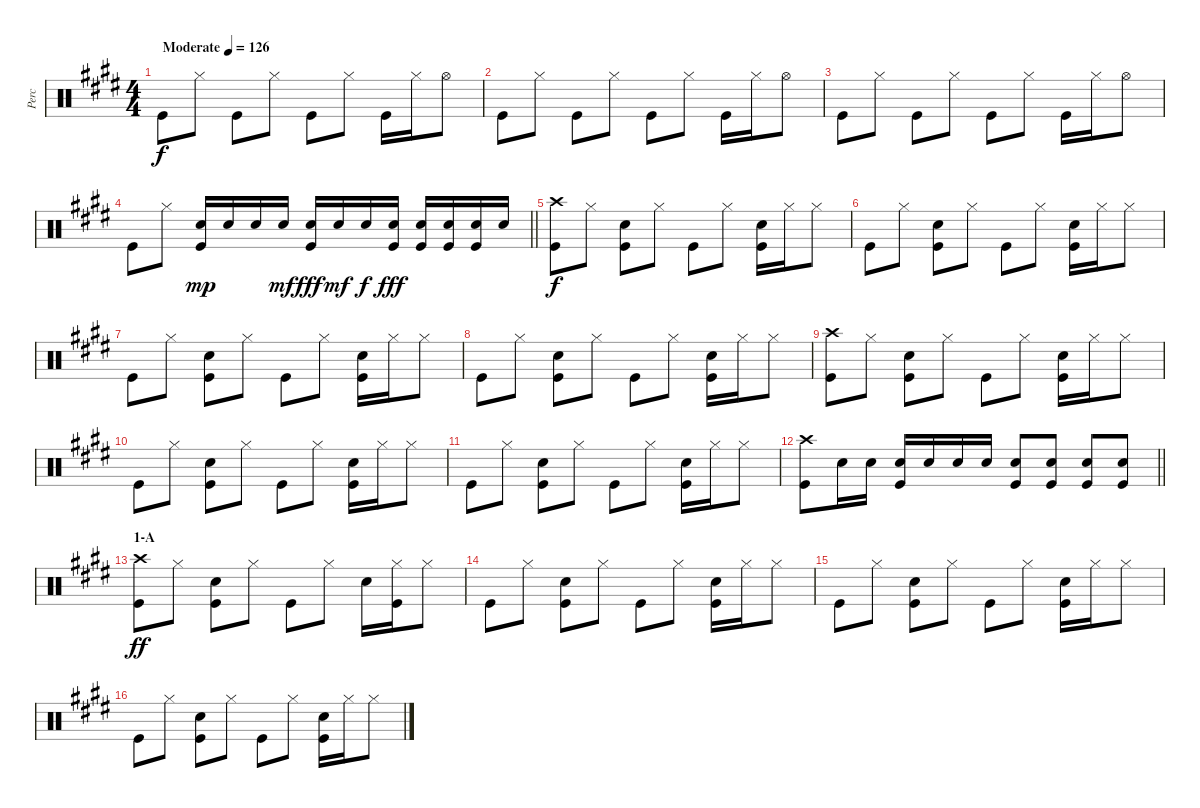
\track ("Perc" "Perc") {instrument percussion}
\staff {score}
\articulation defaults
\ts (4 4)
\tempo (126 "Moderate")
\clef neutral
\ks e "Kick (hit)".8{dy f} "Hi-Hat (closed)".8 "Kick (hit)".8 "Hi-Hat (closed)".8 "Kick (hit)".8 "Hi-Hat (closed)".8 "Kick (hit)".16 "Hi-Hat (closed)".16 "Hi-Hat (open)".8
|
"Kick (hit)".8 "Hi-Hat (closed)".8 "Kick (hit)".8 "Hi-Hat (closed)".8 "Kick (hit)".8 "Hi-Hat (closed)".8 "Kick (hit)".16 "Hi-Hat (closed)".16 "Hi-Hat (open)".8 |
"Kick (hit)".8 "Hi-Hat (closed)".8 "Kick (hit)".8 "Hi-Hat (closed)".8 "Kick (hit)".8 "Hi-Hat (closed)".8 "Kick (hit)".16 "Hi-Hat (closed)".16 "Hi-Hat (open)".8 |
\barLineRight lightlight "Kick (hit)".8 "Hi-Hat (closed)".8
("Snare (hit) 2" "Kick (hit)").16{dy mp} "Snare (hit) 2".16 "Snare (hit) 2".16 "Snare (hit) 2".16{dy mf} ("Snare (hit) 2" "Kick (hit)").16{dy fff} "Snare (hit) 2".16{dy mf} "Snare (hit) 2".16{dy f} ("Snare (hit) 2" "Kick (hit)").16{dy fff} ("Snare (hit) 2" "Kick (hit)").16 ("Snare (hit) 2" "Kick (hit)").16 ("Snare (hit) 2" "Kick (hit)").16 "Snare (hit) 2".16 |
("Crash high (hit)" "Kick (hit)").8{dy f} "Hi-Hat (closed)".8 ("Snare (hit) 2" "Kick (hit)").8 "Hi-Hat (closed)".8 "Kick (hit)".8 "Hi-Hat (closed)".8 ("Snare (hit) 2" "Kick (hit)").16 "Hi-Hat (closed)".16 "Hi-Hat (closed)".8 |
"Kick (hit)".8 "Hi-Hat (closed)".8 ("Snare (hit) 2" "Kick (hit)").8 "Hi-Hat (closed)".8 "Kick (hit)".8 "Hi-Hat (closed)".8 ("Snare (hit) 2" "Kick (hit)").16 "Hi-Hat (closed)".16 "Hi-Hat (closed)".8 |
"Kick (hit)".8 "Hi-Hat (closed)".8 ("Snare (hit) 2" "Kick (hit)").8 "Hi-Hat (closed)".8 "Kick (hit)".8 "Hi-Hat (closed)".8 ("Snare (hit) 2" "Kick (hit)").16 "Hi-Hat (closed)".16 "Hi-Hat (closed)".8 |
"Kick (hit)".8 "Hi-Hat (closed)".8 ("Snare (hit) 2" "Kick (hit)").8 "Hi-Hat (closed)".8 "Kick (hit)".8 "Hi-Hat (closed)".8 ("Snare (hit) 2" "Kick (hit)").16 "Hi-Hat (closed)".16 "Hi-Hat (closed)".8 |
("Crash high (hit)" "Kick (hit)").8 "Hi-Hat (closed)".8 ("Snare (hit) 2" "Kick (hit)").8 "Hi-Hat (closed)".8 "Kick (hit)".8 "Hi-Hat (closed)".8 ("Snare (hit) 2" "Kick (hit)").16 "Hi-Hat (closed)".16 "Hi-Hat (closed)".8 |
"Kick (hit)".8 "Hi-Hat (closed)".8 ("Snare (hit) 2" "Kick (hit)").8 "Hi-Hat (closed)".8 "Kick (hit)".8 "Hi-Hat (closed)".8 ("Snare (hit) 2" "Kick (hit)").16 "Hi-Hat (closed)".16 "Hi-Hat (closed)".8 |
"Kick (hit)".8 "Hi-Hat (closed)".8 ("Snare (hit) 2" "Kick (hit)").8 "Hi-Hat (closed)".8 "Kick (hit)".8 "Hi-Hat (closed)".8 ("Snare (hit) 2" "Kick (hit)").16 "Hi-Hat (closed)".16 "Hi-Hat (closed)".8 |
\barLineRight lightlight
("Crash high (hit)" "Kick (hit)").8 "Snare (hit) 2".16 "Snare (hit) 2".16 ("Snare (hit) 2" "Kick (hit)").16 "Snare (hit) 2".16 "Snare (hit) 2".16 "Snare (hit) 2".16 ("Snare (hit) 2" "Kick (hit)").8 ("Snare (hit) 2" "Kick (hit)").8 ("Snare (hit) 2" "Kick (hit)").8 ("Snare (hit) 2" "Kick (hit)").8 |
\section ("" "1-A")
("Crash high (hit)" "Kick (hit)").8{dy ff} "Hi-Hat (closed)".8 ("Snare (hit) 2" "Kick (hit)").8 "Hi-Hat (closed)".8 "Kick (hit)".8 "Hi-Hat (closed)".8 "Snare (hit) 2".16 ("Hi-Hat (closed)" "Kick (hit)").16 "Hi-Hat (closed)".8 |
"Kick (hit)".8 "Hi-Hat (closed)".8 ("Snare (hit) 2" "Kick (hit)").8 "Hi-Hat (closed)".8 "Kick (hit)".8 "Hi-Hat (closed)".8 ("Snare (hit) 2" "Kick (hit)").16 "Hi-Hat (closed)".16 "Hi-Hat (closed)".8 |
"Kick (hit)".8 "Hi-Hat (closed)".8 ("Snare (hit) 2" "Kick (hit)").8 "Hi-Hat (closed)".8 "Kick (hit)".8 "Hi-Hat (closed)".8 ("Snare (hit) 2" "Kick (hit)").16 "Hi-Hat (closed)".16 "Hi-Hat (closed)".8 |
"Kick (hit)".8 "Hi-Hat (closed)".8 ("Snare (hit) 2" "Kick (hit)").8 "Hi-Hat (closed)".8 "Kick (hit)".8 "Hi-Hat (closed)".8 ("Snare (hit) 2" "Kick (hit)").16 "Hi-Hat (closed)".16 "Hi-Hat (closed)".8
